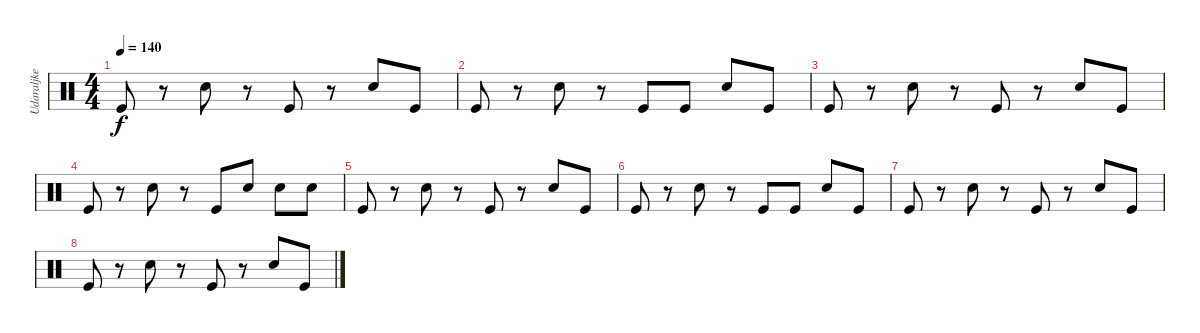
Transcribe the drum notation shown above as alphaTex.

\track ("Udaraljke" "Udaraljke") {instrument percussion}
\staff {score}
\articulation defaults
\ts (4 4)
\tempo 140
\clef neutral
\ks c "Kick (hit)".8{dy f}
r.8 "Snare (hit) 2".8 r.8 "Kick (hit)".8 r.8 "Snare (hit) 2".8 "Kick (hit)".8 |
"Kick (hit)".8 r.8 "Snare (hit) 2".8 r.8 "Kick (hit)".8 "Kick (hit)".8 "Snare (hit) 2".8 "Kick (hit)".8 |
"Kick (hit)".8 r.8 "Snare (hit) 2".8 r.8 "Kick (hit)".8 r.8 "Snare (hit) 2".8 "Kick (hit)".8 |
"Kick (hit)".8 r.8 "Snare (hit) 2".8 r.8 "Kick (hit)".8 "Snare (hit) 2".8 "Snare (hit) 2".8 "Snare (hit) 2".8 |
"Kick (hit)".8 r.8 "Snare (hit) 2".8 r.8 "Kick (hit)".8 r.8 "Snare (hit) 2".8 "Kick (hit)".8 |
"Kick (hit)".8 r.8 "Snare (hit) 2".8 r.8 "Kick (hit)".8 "Kick (hit)".8 "Snare (hit) 2".8 "Kick (hit)".8 |
"Kick (hit)".8 r.8 "Snare (hit) 2".8 r.8 "Kick (hit)".8 r.8 "Snare (hit) 2".8 "Kick (hit)".8 |
"Kick (hit)".8 r.8 "Snare (hit) 2".8 r.8 "Kick (hit)".8 r.8 "Snare (hit) 2".8 "Kick (hit)".8
